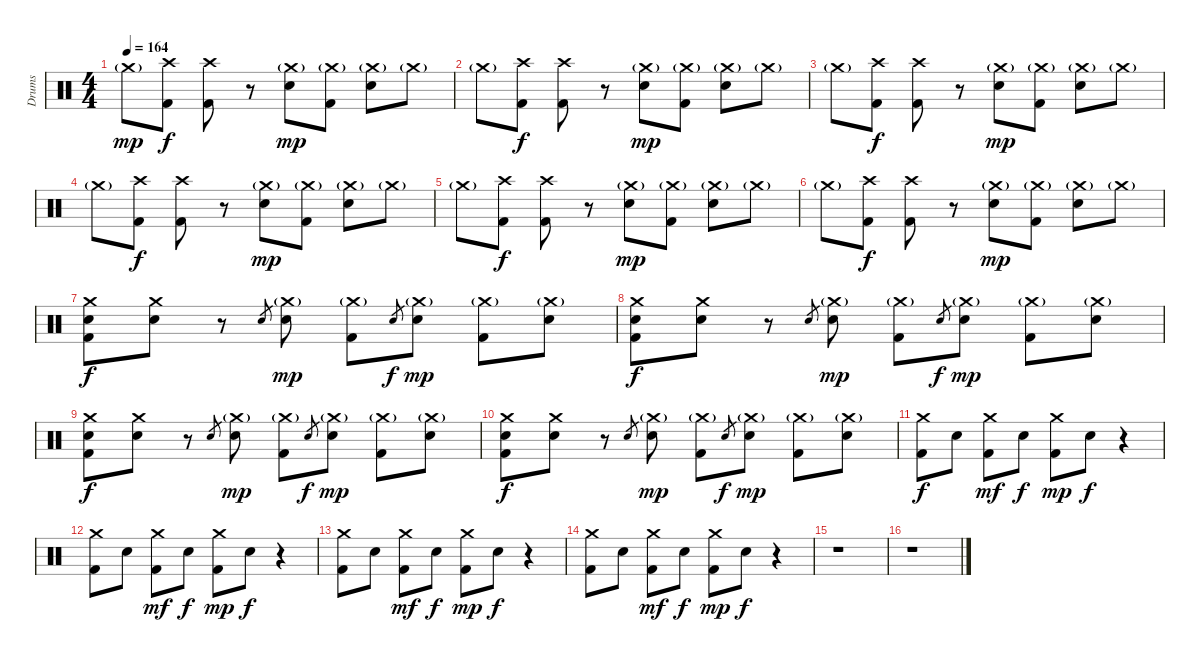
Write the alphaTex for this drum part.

\track ("Drums" "Drums") {instrument percussion}
\staff {score}
\articulation defaults
\ts (4 4)
\tempo 164
\clef neutral
\ks c "Crash medium (hit)"{g}.8{dy mp}
("Crash high (hit)" "Kick (hit) 2").8{dy f} ("Crash high (hit)" "Kick (hit) 2").8 r.8 ("Crash medium (hit)"{g} "Snare (hit) 2").8{dy mp} ("Crash medium (hit)"{g} "Kick (hit) 2").8 ("Crash medium (hit)"{g} "Snare (hit) 2").8 "Crash medium (hit)"{g}.8 |
"Crash medium (hit)"{g}.8 ("Crash high (hit)" "Kick (hit) 2").8{dy f} ("Crash high (hit)" "Kick (hit) 2").8 r.8 ("Crash medium (hit)"{g} "Snare (hit) 2").8{dy mp} ("Crash medium (hit)"{g} "Kick (hit) 2").8 ("Crash medium (hit)"{g} "Snare (hit) 2").8 "Crash medium (hit)"{g}.8 |
"Crash medium (hit)"{g}.8 ("Crash high (hit)" "Kick (hit) 2").8{dy f} ("Crash high (hit)" "Kick (hit) 2").8 r.8 ("Crash medium (hit)"{g} "Snare (hit) 2").8{dy mp} ("Crash medium (hit)"{g} "Kick (hit) 2").8 ("Crash medium (hit)"{g} "Snare (hit) 2").8 "Crash medium (hit)"{g}.8 |
"Crash medium (hit)"{g}.8 ("Crash high (hit)" "Kick (hit) 2").8{dy f} ("Crash high (hit)" "Kick (hit) 2").8 r.8 ("Crash medium (hit)"{g} "Snare (hit) 2").8{dy mp} ("Crash medium (hit)"{g} "Kick (hit) 2").8 ("Crash medium (hit)"{g} "Snare (hit) 2").8 "Crash medium (hit)"{g}.8 |
"Crash medium (hit)"{g}.8 ("Crash high (hit)" "Kick (hit) 2").8{dy f} ("Crash high (hit)" "Kick (hit) 2").8 r.8 ("Crash medium (hit)"{g} "Snare (hit) 2").8{dy mp} ("Crash medium (hit)"{g} "Kick (hit) 2").8 ("Crash medium (hit)"{g} "Snare (hit) 2").8 "Crash medium (hit)"{g}.8 |
"Crash medium (hit)"{g}.8 ("Crash high (hit)" "Kick (hit) 2").8{dy f} ("Crash high (hit)" "Kick (hit) 2").8 r.8 ("Crash medium (hit)"{g} "Snare (hit) 2").8{dy mp} ("Crash medium (hit)"{g} "Kick (hit) 2").8 ("Crash medium (hit)"{g} "Snare (hit) 2").8 "Crash medium (hit)"{g}.8 |
("Crash medium (hit)" "Snare (hit) 2" "Kick (hit) 2").8{dy f} ("Crash medium (hit)" "Snare (hit) 2").8 r.8 "Snare (hit) 2".8{gr} ("Crash medium (hit)"{g} "Snare (hit) 2").8{dy mp} ("Crash medium (hit)"{g} "Kick (hit) 2").8 "Snare (hit) 2".8{gr dy f} ("Crash medium (hit)"{g} "Snare (hit) 2").8{dy mp} ("Crash medium (hit)"{g} "Kick (hit) 2").8 ("Crash medium (hit)"{g} "Snare (hit) 2").8 |
("Crash medium (hit)" "Snare (hit) 2" "Kick (hit) 2").8{dy f} ("Crash medium (hit)" "Snare (hit) 2").8 r.8 "Snare (hit) 2".8{gr} ("Crash medium (hit)"{g} "Snare (hit) 2").8{dy mp} ("Crash medium (hit)"{g} "Kick (hit) 2").8 "Snare (hit) 2".8{gr dy f} ("Crash medium (hit)"{g} "Snare (hit) 2").8{dy mp} ("Crash medium (hit)"{g} "Kick (hit) 2").8 ("Crash medium (hit)"{g} "Snare (hit) 2").8 |
("Crash medium (hit)" "Snare (hit) 2" "Kick (hit) 2").8{dy f} ("Crash medium (hit)" "Snare (hit) 2").8 r.8 "Snare (hit) 2".8{gr} ("Crash medium (hit)"{g} "Snare (hit) 2").8{dy mp} ("Crash medium (hit)"{g} "Kick (hit) 2").8 "Snare (hit) 2".8{gr dy f} ("Crash medium (hit)"{g} "Snare (hit) 2").8{dy mp} ("Crash medium (hit)"{g} "Kick (hit) 2").8 ("Crash medium (hit)"{g} "Snare (hit) 2").8 |
("Crash medium (hit)" "Snare (hit) 2" "Kick (hit) 2").8{dy f} ("Crash medium (hit)" "Snare (hit) 2").8 r.8 "Snare (hit) 2".8{gr} ("Crash medium (hit)"{g} "Snare (hit) 2").8{dy mp} ("Crash medium (hit)"{g} "Kick (hit) 2").8 "Snare (hit) 2".8{gr dy f} ("Crash medium (hit)"{g} "Snare (hit) 2").8{dy mp} ("Crash medium (hit)"{g} "Kick (hit) 2").8 ("Crash medium (hit)"{g} "Snare (hit) 2").8 |
("Crash medium (hit)" "Kick (hit) 2").8{dy f} "Snare (hit) 2".8 ("Crash medium (hit)" "Kick (hit) 2").8{dy mf} "Snare (hit) 2".8{dy f} ("Crash medium (hit)" "Kick (hit) 2").8{dy mp} "Snare (hit) 2".8{dy f} r.4 |
("Crash medium (hit)" "Kick (hit) 2").8 "Snare (hit) 2".8 ("Crash medium (hit)" "Kick (hit) 2").8{dy mf} "Snare (hit) 2".8{dy f} ("Crash medium (hit)" "Kick (hit) 2").8{dy mp} "Snare (hit) 2".8{dy f} r.4 |
("Crash medium (hit)" "Kick (hit) 2").8 "Snare (hit) 2".8 ("Crash medium (hit)" "Kick (hit) 2").8{dy mf} "Snare (hit) 2".8{dy f} ("Crash medium (hit)" "Kick (hit) 2").8{dy mp} "Snare (hit) 2".8{dy f} r.4 |
("Crash medium (hit)" "Kick (hit) 2").8 "Snare (hit) 2".8 ("Crash medium (hit)" "Kick (hit) 2").8{dy mf} "Snare (hit) 2".8{dy f} ("Crash medium (hit)" "Kick (hit) 2").8{dy mp} "Snare (hit) 2".8{dy f} r.4 |
r.1 |
r.1
